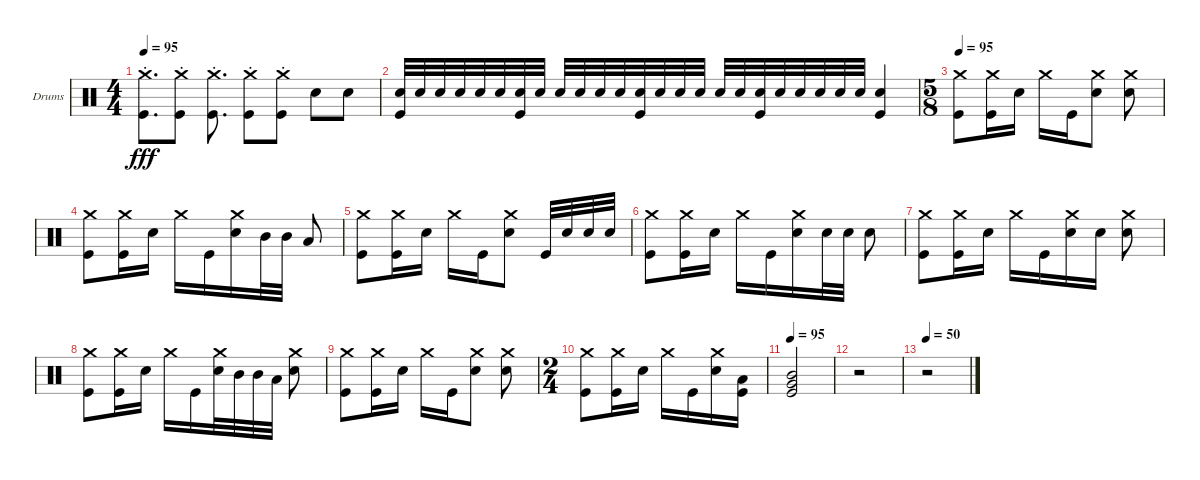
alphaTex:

\bracketExtendMode groupsimilarinstruments
\firstSystemTrackNameOrientation horizontal
\otherSystemsTrackNameOrientation horizontal
\track ("Andrew Forsman" "Drums") {instrument percussion}
\staff {score}
\articulation defaults
\ts (4 4)
\tempo 95
\clef neutral
\scale
0.333333
\ks c
("Kick (hit)" "Crash medium (hit)"{st}).8{d dy fff} ("Kick (hit)" "Crash medium (hit)"{st}).8 ("Kick (hit)" "Crash medium (hit)"{st}).8{d} ("Kick (hit)" "Crash medium (hit)"{st}).8 ("Kick (hit)" "Crash medium (hit)"{st}).8 "Snare (hit) 2".8 "Snare (hit) 2".8 |
\scale
0.262911 ("Snare (hit) 2" "Kick (hit)").32 "Snare (hit) 2".32 "Snare (hit) 2".32 "Snare (hit) 2".32 "Snare (hit) 2".32 "Snare (hit) 2".32 ("Snare (hit) 2" "Kick (hit)").32 "Snare (hit) 2".32 "Snare (hit) 2".32 "Snare (hit) 2".32 "Snare (hit) 2".32 "Snare (hit) 2".32 ("Snare (hit) 2" "Kick (hit)").32 "Snare (hit) 2".32 "Snare (hit) 2".32 "Snare (hit) 2".32 "Snare (hit) 2".32 "Snare (hit) 2".32 ("Snare (hit) 2" "Kick (hit)").32 "Snare (hit) 2".32 "Snare (hit) 2".32 "Snare (hit) 2".32 "Snare (hit) 2".32 "Snare (hit) 2".32 ("Snare (hit) 2" "Kick (hit)").4 |
\ts (5 8)
\beaming (8 2 2 2 2)
\tempo 95
\scale
0.474178 ("Kick (hit)" "Crash medium (hit)").8 ("Kick (hit)" "Crash medium (hit)").16 "Snare (hit) 2".16 "Crash medium (hit)".16 "Kick (hit)".16 ("Snare (hit) 2" "Crash medium (hit)").8 ("Snare (hit) 2" "Crash medium (hit)").8 |
\scale
0.262911 ("Kick (hit)" "Crash medium (hit)").8 ("Kick (hit)" "Crash medium (hit)").16 "Snare (hit) 2".16 "Crash medium (hit)".16 "Kick (hit)".16 ("Snare (hit) 2" "Crash medium (hit)").16 "Mid Tom (hit)".32 "Mid Tom (hit)".32 "Low Tom (hit)".8 |
\scale
0.333333 ("Kick (hit)" "Crash medium (hit)").8 ("Kick (hit)" "Crash medium (hit)").16 "Snare (hit) 2".16 "Crash medium (hit)".16 "Kick (hit)".16 ("Snare (hit) 2" "Crash medium (hit)").8 "Kick (hit)".32 "Snare (hit) 2".32 "Snare (hit) 2".32 "Snare (hit) 2".32 |
\scale
0.333333 ("Kick (hit)" "Crash medium (hit)").8 ("Kick (hit)" "Crash medium (hit)").16 "Snare (hit) 2".16 "Crash medium (hit)".16 "Kick (hit)".16 ("Snare (hit) 2" "Crash medium (hit)").16 "Snare (hit) 2".32 "Snare (hit) 2".32 "Snare (hit) 2".8 |
\scale
0.333333 ("Kick (hit)" "Crash medium (hit)").8 ("Kick (hit)" "Crash medium (hit)").16 "Snare (hit) 2".16 "Crash medium (hit)".16 "Kick (hit)".16 ("Snare (hit) 2" "Crash medium (hit)").16 "Snare (hit) 2".16 ("Snare (hit) 2" "Crash medium (hit)").8 |
\scale
0.262911 ("Kick (hit)" "Crash medium (hit)").8 ("Kick (hit)" "Crash medium (hit)").16 "Snare (hit) 2".16 "Crash medium (hit)".16 "Kick (hit)".16 ("Snare (hit) 2" "Crash medium (hit)").32 "Mid Tom (hit)".32 "Mid Tom (hit)".32 "Low Tom (hit)".32 ("Snare (hit) 2" "Crash medium (hit)").8 |
\scale
0.262911 ("Kick (hit)" "Crash medium (hit)").8 ("Kick (hit)" "Crash medium (hit)").16 "Snare (hit) 2".16 "Crash medium (hit)".16 "Kick (hit)".16 ("Snare (hit) 2" "Crash medium (hit)").8 ("Snare (hit) 2" "Crash medium (hit)").8 |
\ts (2 4)
\beaming (8 2 2 2 2)
\scale
0.474178 ("Kick (hit)" "Crash medium (hit)").8 ("Kick (hit)" "Crash medium (hit)").16 "Snare (hit) 2".16 "Crash medium (hit)".16 "Kick (hit)".16 ("Snare (hit) 2" "Crash medium (hit)").16 ("Low Tom (hit)" "Kick (hit)").16 |
\tempo 95
("Kick (hit)" "Very Low Tom (hit)" "Mid Tom (hit)").2 |
r.2 |
\tempo 50
r.2
